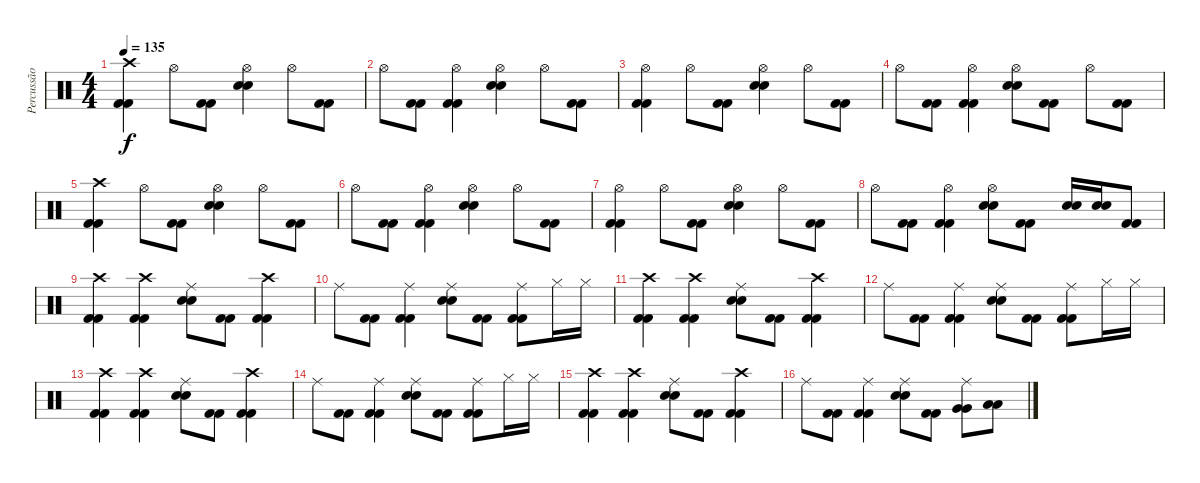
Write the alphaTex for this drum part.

\track ("Percussão" "Percussão") {instrument percussion}
\staff {score}
\articulation defaults
\ts (4 4)
\tempo 135
\clef neutral
\ks c
("Crash high (hit)" "Kick (hit) 2" "Kick (hit) 2").4{dy f} "Hi-Hat (open)".8 ("Kick (hit) 2" "Kick (hit) 2").8 ("Hi-Hat (open)" "Electric Snare (hit)" "Electric Snare (hit)").4 "Hi-Hat (open)".8 ("Kick (hit) 2" "Kick (hit) 2").8 |
"Hi-Hat (open)".8 ("Kick (hit) 2" "Kick (hit) 2").8 ("Hi-Hat (open)" "Kick (hit) 2" "Kick (hit) 2").4 ("Hi-Hat (open)" "Electric Snare (hit)" "Electric Snare (hit)").4 "Hi-Hat (open)".8 ("Kick (hit) 2" "Kick (hit) 2").8 |
("Hi-Hat (open)" "Kick (hit) 2" "Kick (hit) 2").4 "Hi-Hat (open)".8 ("Kick (hit) 2" "Kick (hit) 2").8 ("Hi-Hat (open)" "Electric Snare (hit)" "Electric Snare (hit)").4 "Hi-Hat (open)".8 ("Kick (hit) 2" "Kick (hit) 2").8 |
"Hi-Hat (open)".8 ("Kick (hit) 2" "Kick (hit) 2").8 ("Hi-Hat (open)" "Kick (hit) 2" "Kick (hit) 2").4 ("Hi-Hat (open)" "Electric Snare (hit)" "Electric Snare (hit)").8 ("Kick (hit) 2" "Kick (hit) 2").8 "Hi-Hat (open)".8 ("Kick (hit) 2" "Kick (hit) 2").8 |
("Crash high (hit)" "Kick (hit) 2" "Kick (hit) 2").4 "Hi-Hat (open)".8 ("Kick (hit) 2" "Kick (hit) 2").8 ("Hi-Hat (open)" "Electric Snare (hit)" "Electric Snare (hit)").4 "Hi-Hat (open)".8 ("Kick (hit) 2" "Kick (hit) 2").8 |
"Hi-Hat (open)".8 ("Kick (hit) 2" "Kick (hit) 2").8 ("Hi-Hat (open)" "Kick (hit) 2" "Kick (hit) 2").4 ("Hi-Hat (open)" "Electric Snare (hit)" "Electric Snare (hit)").4 "Hi-Hat (open)".8 ("Kick (hit) 2" "Kick (hit) 2").8 |
("Hi-Hat (open)" "Kick (hit) 2" "Kick (hit) 2").4 "Hi-Hat (open)".8 ("Kick (hit) 2" "Kick (hit) 2").8 ("Hi-Hat (open)" "Electric Snare (hit)" "Electric Snare (hit)").4 "Hi-Hat (open)".8 ("Kick (hit) 2" "Kick (hit) 2").8 |
"Hi-Hat (open)".8 ("Kick (hit) 2" "Kick (hit) 2").8 ("Hi-Hat (open)" "Kick (hit) 2" "Kick (hit) 2").4 ("Hi-Hat (open)" "Electric Snare (hit)" "Electric Snare (hit)").8 ("Kick (hit) 2" "Kick (hit) 2").8 ("Electric Snare (hit)" "Electric Snare (hit)").16 ("Electric Snare (hit)" "Electric Snare (hit)").16 ("Kick (hit) 2" "Kick (hit) 2").8 |
("Crash high (hit)" "Kick (hit) 2" "Kick (hit) 2").4 ("Crash high (hit)" "Kick (hit) 2" "Kick (hit) 2").4 ("Ride (middle)" "Electric Snare (hit)" "Electric Snare (hit)").8 ("Kick (hit) 2" "Kick (hit) 2").8 ("Crash high (hit)" "Kick (hit) 2" "Kick (hit) 2").4 |
"Ride (middle)".8 ("Kick (hit) 2" "Kick (hit) 2").8 ("Ride (middle)" "Kick (hit) 2" "Kick (hit) 2").4 ("Ride (middle)" "Electric Snare (hit)" "Electric Snare (hit)").8 ("Kick (hit) 2" "Kick (hit) 2").8 ("Ride (middle)" "Kick (hit) 2" "Kick (hit) 2").8 "Hi-Hat (closed)".16 "Hi-Hat (closed)".16 |
("Crash high (hit)" "Kick (hit) 2" "Kick (hit) 2").4 ("Crash high (hit)" "Kick (hit) 2" "Kick (hit) 2").4 ("Ride (middle)" "Electric Snare (hit)" "Electric Snare (hit)").8 ("Kick (hit) 2" "Kick (hit) 2").8 ("Crash high (hit)" "Kick (hit) 2" "Kick (hit) 2").4 |
"Ride (middle)".8 ("Kick (hit) 2" "Kick (hit) 2").8 ("Ride (middle)" "Kick (hit) 2" "Kick (hit) 2").4 ("Ride (middle)" "Electric Snare (hit)" "Electric Snare (hit)").8 ("Kick (hit) 2" "Kick (hit) 2").8 ("Ride (middle)" "Kick (hit) 2" "Kick (hit) 2").8 "Hi-Hat (closed)".16 "Hi-Hat (closed)".16 |
("Crash high (hit)" "Kick (hit) 2" "Kick (hit) 2").4 ("Crash high (hit)" "Kick (hit) 2" "Kick (hit) 2").4 ("Ride (middle)" "Electric Snare (hit)" "Electric Snare (hit)").8 ("Kick (hit) 2" "Kick (hit) 2").8 ("Crash high (hit)" "Kick (hit) 2" "Kick (hit) 2").4 |
"Ride (middle)".8 ("Kick (hit) 2" "Kick (hit) 2").8 ("Ride (middle)" "Kick (hit) 2" "Kick (hit) 2").4 ("Ride (middle)" "Electric Snare (hit)" "Electric Snare (hit)").8 ("Kick (hit) 2" "Kick (hit) 2").8 ("Ride (middle)" "Kick (hit) 2" "Kick (hit) 2").8 "Hi-Hat (closed)".16 "Hi-Hat (closed)".16 |
("Crash high (hit)" "Kick (hit) 2" "Kick (hit) 2").4 ("Crash high (hit)" "Kick (hit) 2" "Kick (hit) 2").4 ("Ride (middle)" "Electric Snare (hit)" "Electric Snare (hit)").8 ("Kick (hit) 2" "Kick (hit) 2").8 ("Crash high (hit)" "Kick (hit) 2" "Kick (hit) 2").4 |
"Ride (middle)".8 ("Kick (hit) 2" "Kick (hit) 2").8 ("Ride (middle)" "Kick (hit) 2" "Kick (hit) 2").4 ("Ride (middle)" "Electric Snare (hit)" "Electric Snare (hit)").8 ("Kick (hit) 2" "Kick (hit) 2").8 ("Ride (middle)" "Very Low Tom (hit)" "Very Low Tom (hit)").8 ("Low Tom (hit)" "Low Tom (hit)").8
